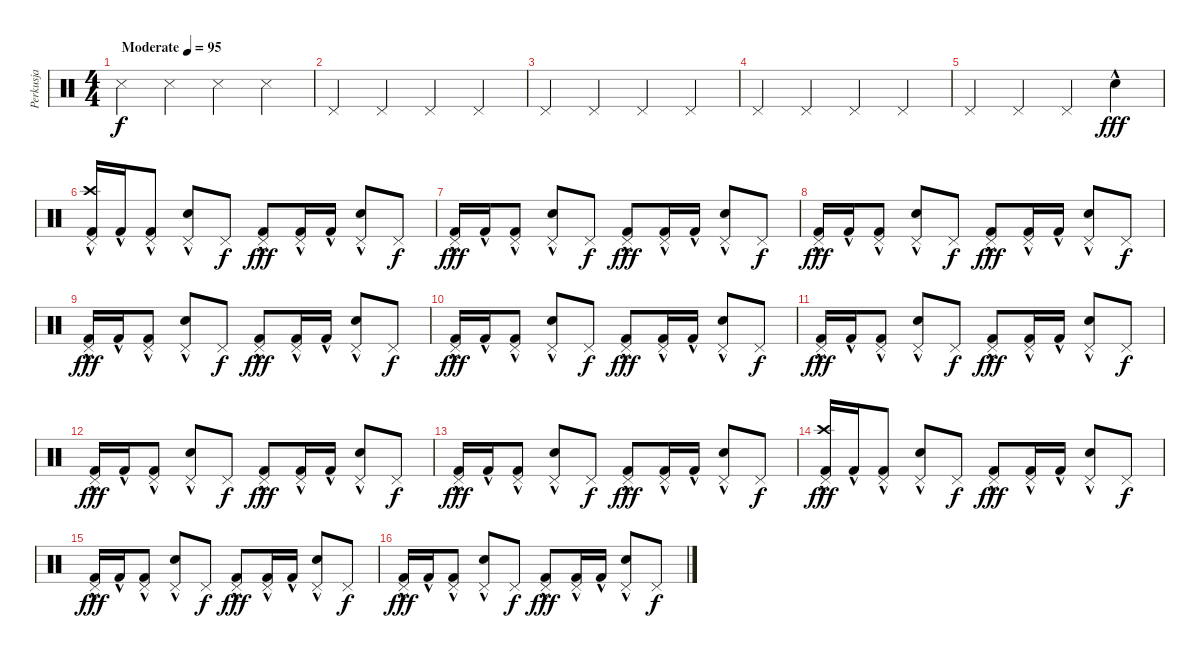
\track ("Perkusja" "Perkusja") {instrument percussion}
\staff {score}
\articulation defaults
\ts (4 4)
\tempo (95 "Moderate")
\clef neutral
\ks c "Snare (side stick) 3".4{dy f} "Snare (side stick) 3".4 "Snare (side stick) 3".4 "Snare (side stick) 3".4
|
"Pedal Hi-Hat (hit)".4 "Pedal Hi-Hat (hit)".4 "Pedal Hi-Hat (hit)".4 "Pedal Hi-Hat (hit)".4 |
"Pedal Hi-Hat (hit)".4 "Pedal Hi-Hat (hit)".4 "Pedal Hi-Hat (hit)".4 "Pedal Hi-Hat (hit)".4 |
"Pedal Hi-Hat (hit)".4 "Pedal Hi-Hat (hit)".4 "Pedal Hi-Hat (hit)".4 "Pedal Hi-Hat (hit)".4 |
"Pedal Hi-Hat (hit)".4 "Pedal Hi-Hat (hit)".4 "Pedal Hi-Hat (hit)".4 "Electric Snare (hit)"{hac}.4{dy fff} |
("Crash high (hit)" "Pedal Hi-Hat (hit)" "Kick (hit) 2"{hac}).16 "Kick (hit) 2"{hac}.16 ("Pedal Hi-Hat (hit)" "Kick (hit) 2"{hac}).8 ("Pedal Hi-Hat (hit)" "Electric Snare (hit)"{hac}).8 "Pedal Hi-Hat (hit)".8{dy f} ("Pedal Hi-Hat (hit)" "Kick (hit) 2"{hac}).8{dy fff} ("Pedal Hi-Hat (hit)" "Kick (hit) 2"{hac}).16 "Kick (hit) 2"{hac}.16 ("Pedal Hi-Hat (hit)" "Electric Snare (hit)"{hac}).8 "Pedal Hi-Hat (hit)".8{dy f} |
("Pedal Hi-Hat (hit)" "Kick (hit) 2"{hac}).16{dy fff} "Kick (hit) 2"{hac}.16 ("Pedal Hi-Hat (hit)" "Kick (hit) 2"{hac}).8 ("Pedal Hi-Hat (hit)" "Electric Snare (hit)"{hac}).8 "Pedal Hi-Hat (hit)".8{dy f} ("Pedal Hi-Hat (hit)" "Kick (hit) 2"{hac}).8{dy fff} ("Pedal Hi-Hat (hit)" "Kick (hit) 2"{hac}).16 "Kick (hit) 2"{hac}.16 ("Pedal Hi-Hat (hit)" "Electric Snare (hit)"{hac}).8 "Pedal Hi-Hat (hit)".8{dy f} |
("Pedal Hi-Hat (hit)" "Kick (hit) 2"{hac}).16{dy fff} "Kick (hit) 2"{hac}.16 ("Pedal Hi-Hat (hit)" "Kick (hit) 2"{hac}).8 ("Pedal Hi-Hat (hit)" "Electric Snare (hit)"{hac}).8 "Pedal Hi-Hat (hit)".8{dy f} ("Pedal Hi-Hat (hit)" "Kick (hit) 2"{hac}).8{dy fff} ("Pedal Hi-Hat (hit)" "Kick (hit) 2"{hac}).16 "Kick (hit) 2"{hac}.16 ("Pedal Hi-Hat (hit)" "Electric Snare (hit)"{hac}).8 "Pedal Hi-Hat (hit)".8{dy f} |
("Pedal Hi-Hat (hit)" "Kick (hit) 2"{hac}).16{dy fff} "Kick (hit) 2"{hac}.16 ("Pedal Hi-Hat (hit)" "Kick (hit) 2"{hac}).8 ("Pedal Hi-Hat (hit)" "Electric Snare (hit)"{hac}).8 "Pedal Hi-Hat (hit)".8{dy f} ("Pedal Hi-Hat (hit)" "Kick (hit) 2"{hac}).8{dy fff} ("Pedal Hi-Hat (hit)" "Kick (hit) 2"{hac}).16 "Kick (hit) 2"{hac}.16 ("Pedal Hi-Hat (hit)" "Electric Snare (hit)"{hac}).8 "Pedal Hi-Hat (hit)".8{dy f} |
("Pedal Hi-Hat (hit)" "Kick (hit) 2"{hac}).16{dy fff} "Kick (hit) 2"{hac}.16 ("Pedal Hi-Hat (hit)" "Kick (hit) 2"{hac}).8 ("Pedal Hi-Hat (hit)" "Electric Snare (hit)"{hac}).8 "Pedal Hi-Hat (hit)".8{dy f} ("Pedal Hi-Hat (hit)" "Kick (hit) 2"{hac}).8{dy fff} ("Pedal Hi-Hat (hit)" "Kick (hit) 2"{hac}).16 "Kick (hit) 2"{hac}.16 ("Pedal Hi-Hat (hit)" "Electric Snare (hit)"{hac}).8 "Pedal Hi-Hat (hit)".8{dy f} |
("Pedal Hi-Hat (hit)" "Kick (hit) 2"{hac}).16{dy fff} "Kick (hit) 2"{hac}.16 ("Pedal Hi-Hat (hit)" "Kick (hit) 2"{hac}).8 ("Pedal Hi-Hat (hit)" "Electric Snare (hit)"{hac}).8 "Pedal Hi-Hat (hit)".8{dy f} ("Pedal Hi-Hat (hit)" "Kick (hit) 2"{hac}).8{dy fff} ("Pedal Hi-Hat (hit)" "Kick (hit) 2"{hac}).16 "Kick (hit) 2"{hac}.16 ("Pedal Hi-Hat (hit)" "Electric Snare (hit)"{hac}).8 "Pedal Hi-Hat (hit)".8{dy f} |
("Pedal Hi-Hat (hit)" "Kick (hit) 2"{hac}).16{dy fff} "Kick (hit) 2"{hac}.16 ("Pedal Hi-Hat (hit)" "Kick (hit) 2"{hac}).8 ("Pedal Hi-Hat (hit)" "Electric Snare (hit)"{hac}).8 "Pedal Hi-Hat (hit)".8{dy f} ("Pedal Hi-Hat (hit)" "Kick (hit) 2"{hac}).8{dy fff} ("Pedal Hi-Hat (hit)" "Kick (hit) 2"{hac}).16 "Kick (hit) 2"{hac}.16 ("Pedal Hi-Hat (hit)" "Electric Snare (hit)"{hac}).8 "Pedal Hi-Hat (hit)".8{dy f} |
("Pedal Hi-Hat (hit)" "Kick (hit) 2"{hac}).16{dy fff} "Kick (hit) 2"{hac}.16 ("Pedal Hi-Hat (hit)" "Kick (hit) 2"{hac}).8 ("Pedal Hi-Hat (hit)" "Electric Snare (hit)"{hac}).8 "Pedal Hi-Hat (hit)".8{dy f} ("Pedal Hi-Hat (hit)" "Kick (hit) 2"{hac}).8{dy fff} ("Pedal Hi-Hat (hit)" "Kick (hit) 2"{hac}).16 "Kick (hit) 2"{hac}.16 ("Pedal Hi-Hat (hit)" "Electric Snare (hit)"{hac}).8 "Pedal Hi-Hat (hit)".8{dy f} |
("Crash high (hit)" "Pedal Hi-Hat (hit)" "Kick (hit) 2"{hac}).16{dy fff} "Kick (hit) 2"{hac}.16 ("Pedal Hi-Hat (hit)" "Kick (hit) 2"{hac}).8 ("Pedal Hi-Hat (hit)" "Electric Snare (hit)"{hac}).8 "Pedal Hi-Hat (hit)".8{dy f} ("Pedal Hi-Hat (hit)" "Kick (hit) 2"{hac}).8{dy fff} ("Pedal Hi-Hat (hit)" "Kick (hit) 2"{hac}).16 "Kick (hit) 2"{hac}.16 ("Pedal Hi-Hat (hit)" "Electric Snare (hit)"{hac}).8 "Pedal Hi-Hat (hit)".8{dy f} |
("Pedal Hi-Hat (hit)" "Kick (hit) 2"{hac}).16{dy fff} "Kick (hit) 2"{hac}.16 ("Pedal Hi-Hat (hit)" "Kick (hit) 2"{hac}).8 ("Pedal Hi-Hat (hit)" "Electric Snare (hit)"{hac}).8 "Pedal Hi-Hat (hit)".8{dy f} ("Pedal Hi-Hat (hit)" "Kick (hit) 2"{hac}).8{dy fff} ("Pedal Hi-Hat (hit)" "Kick (hit) 2"{hac}).16 "Kick (hit) 2"{hac}.16 ("Pedal Hi-Hat (hit)" "Electric Snare (hit)"{hac}).8 "Pedal Hi-Hat (hit)".8{dy f} |
("Pedal Hi-Hat (hit)" "Kick (hit) 2"{hac}).16{dy fff} "Kick (hit) 2"{hac}.16 ("Pedal Hi-Hat (hit)" "Kick (hit) 2"{hac}).8 ("Pedal Hi-Hat (hit)" "Electric Snare (hit)"{hac}).8 "Pedal Hi-Hat (hit)".8{dy f} ("Pedal Hi-Hat (hit)" "Kick (hit) 2"{hac}).8{dy fff} ("Pedal Hi-Hat (hit)" "Kick (hit) 2"{hac}).16 "Kick (hit) 2"{hac}.16 ("Pedal Hi-Hat (hit)" "Electric Snare (hit)"{hac}).8 "Pedal Hi-Hat (hit)".8{dy f}
